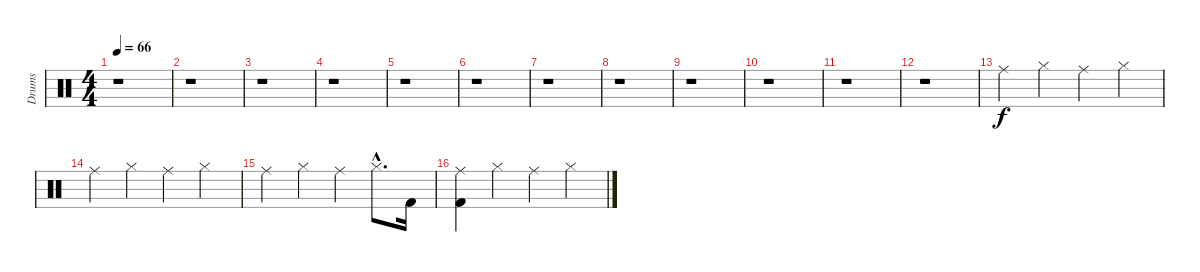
\track ("Drums" "Drums") {instrument percussion}
\staff {score}
\articulation defaults
\ts (4 4)
\tempo 66
\clef neutral
\ks c
r.1{dy f} |
r.1 |
r.1 |
r.1 |
r.1 |
r.1 |
r.1 |
r.1 |
r.1 |
r.1 |
r.1 |
r.1 |
"Ride (middle)".4 "Hi-Hat (closed)".4 "Ride (middle)".4 "Hi-Hat (closed)".4 |
"Ride (middle)".4 "Hi-Hat (closed)".4 "Ride (middle)".4 "Hi-Hat (closed)".4 |
"Ride (middle)".4 "Hi-Hat (closed)".4 "Ride (middle)".4 "Hi-Hat (closed)"{hac}.8{d} "Kick (hit) 2".16 |
("Ride (middle)" "Kick (hit) 2").4 "Hi-Hat (closed)".4 "Ride (middle)".4 "Hi-Hat (closed)".4
